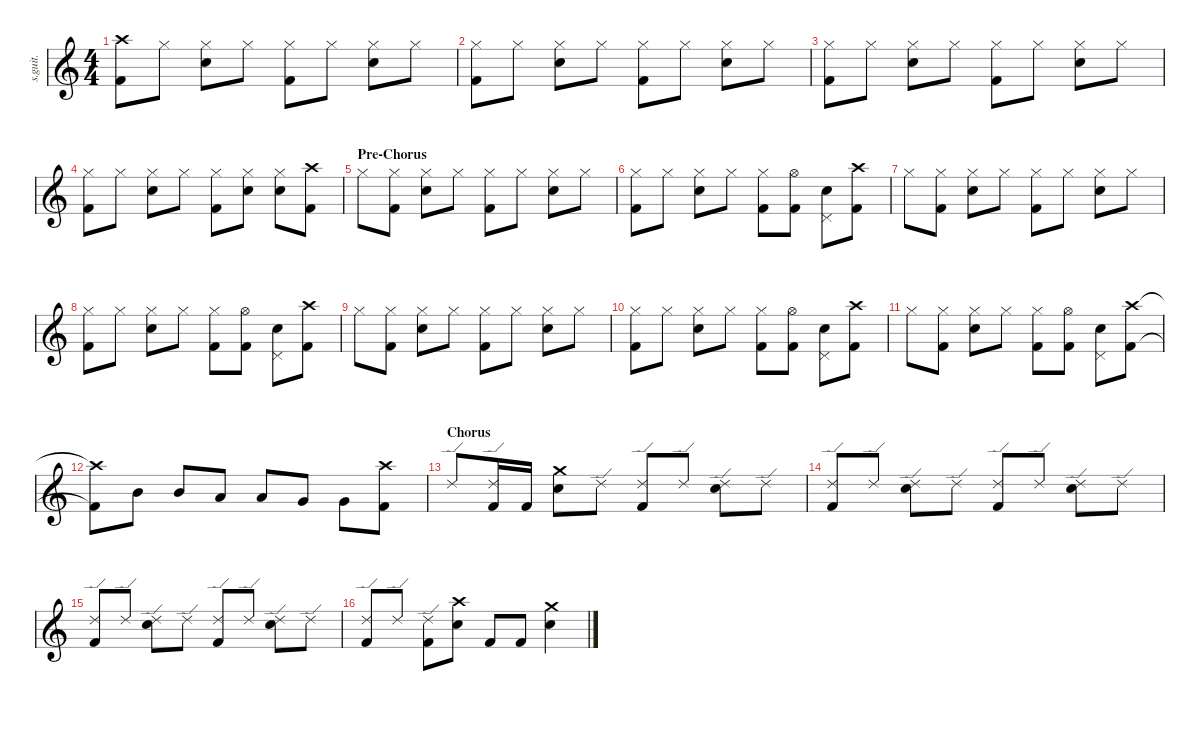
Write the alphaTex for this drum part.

\defaultSystemsLayout 4
\hideDynamics
\bracketExtendMode nobrackets
\track ("Nick Menza" "s.guit.") {instrument percussion}
\staff {score}
\articulation defaults
\ts (4 4)
\tempo (140 hide)
\clef g2
\ks c
("Crash high (hit)" "Kick (hit) 2").8{lyrics (0 "") lyrics (1 "") lyrics (2 "") lyrics (3 "") lyrics (4 "") dy f} "Hi-Hat (closed)".8{lyrics (0 "") lyrics (1 "") lyrics (2 "") lyrics (3 "") lyrics (4 "")} ("Hi-Hat (closed)" "Snare (hit) 2").8{lyrics (0 "") lyrics (1 "") lyrics (2 "") lyrics (3 "") lyrics (4 "")} "Hi-Hat (closed)".8{lyrics (0 "") lyrics (1 "") lyrics (2 "") lyrics (3 "") lyrics (4 "")} ("Hi-Hat (closed)" "Kick (hit) 2").8{lyrics (0 "") lyrics (1 "") lyrics (2 "") lyrics (3 "") lyrics (4 "")} "Hi-Hat (closed)".8{lyrics (0 "") lyrics (1 "") lyrics (2 "") lyrics (3 "") lyrics (4 "")} ("Hi-Hat (closed)" "Snare (hit) 2").8{lyrics (0 "") lyrics (1 "") lyrics (2 "") lyrics (3 "") lyrics (4 "")} "Hi-Hat (closed)".8{lyrics (0 "") lyrics (1 "") lyrics (2 "") lyrics (3 "") lyrics (4 "")} |
("Hi-Hat (closed)" "Kick (hit) 2").8{lyrics (0 "") lyrics (1 "") lyrics (2 "") lyrics (3 "") lyrics (4 "")} "Hi-Hat (closed)".8{lyrics (0 "") lyrics (1 "") lyrics (2 "") lyrics (3 "") lyrics (4 "")} ("Hi-Hat (closed)" "Snare (hit) 2").8{lyrics (0 "") lyrics (1 "") lyrics (2 "") lyrics (3 "") lyrics (4 "")} "Hi-Hat (closed)".8{lyrics (0 "") lyrics (1 "") lyrics (2 "") lyrics (3 "") lyrics (4 "")} ("Hi-Hat (closed)" "Kick (hit) 2").8{lyrics (0 "") lyrics (1 "") lyrics (2 "") lyrics (3 "") lyrics (4 "")} "Hi-Hat (closed)".8{lyrics (0 "") lyrics (1 "") lyrics (2 "") lyrics (3 "") lyrics (4 "")} ("Hi-Hat (closed)" "Snare (hit) 2").8{lyrics (0 "") lyrics (1 "") lyrics (2 "") lyrics (3 "") lyrics (4 "")} "Hi-Hat (closed)".8{lyrics (0 "") lyrics (1 "") lyrics (2 "") lyrics (3 "") lyrics (4 "")} |
("Hi-Hat (closed)" "Kick (hit) 2").8{lyrics (0 "") lyrics (1 "") lyrics (2 "") lyrics (3 "") lyrics (4 "")} "Hi-Hat (closed)".8{lyrics (0 "") lyrics (1 "") lyrics (2 "") lyrics (3 "") lyrics (4 "")} ("Hi-Hat (closed)" "Snare (hit) 2").8{lyrics (0 "") lyrics (1 "") lyrics (2 "") lyrics (3 "") lyrics (4 "")} "Hi-Hat (closed)".8{lyrics (0 "") lyrics (1 "") lyrics (2 "") lyrics (3 "") lyrics (4 "")} ("Hi-Hat (closed)" "Kick (hit) 2").8{lyrics (0 "") lyrics (1 "") lyrics (2 "") lyrics (3 "") lyrics (4 "")} "Hi-Hat (closed)".8{lyrics (0 "") lyrics (1 "") lyrics (2 "") lyrics (3 "") lyrics (4 "")} ("Hi-Hat (closed)" "Snare (hit) 2").8{lyrics (0 "") lyrics (1 "") lyrics (2 "") lyrics (3 "") lyrics (4 "")} "Hi-Hat (closed)".8{lyrics (0 "") lyrics (1 "") lyrics (2 "") lyrics (3 "") lyrics (4 "")} |
("Hi-Hat (closed)" "Kick (hit) 2").8{lyrics (0 "") lyrics (1 "") lyrics (2 "") lyrics (3 "") lyrics (4 "")} "Hi-Hat (closed)".8{lyrics (0 "") lyrics (1 "") lyrics (2 "") lyrics (3 "") lyrics (4 "")} ("Hi-Hat (closed)" "Snare (hit) 2").8{lyrics (0 "") lyrics (1 "") lyrics (2 "") lyrics (3 "") lyrics (4 "")} "Hi-Hat (closed)".8{lyrics (0 "") lyrics (1 "") lyrics (2 "") lyrics (3 "") lyrics (4 "")} ("Hi-Hat (closed)" "Kick (hit) 2").8{lyrics (0 "") lyrics (1 "") lyrics (2 "") lyrics (3 "") lyrics (4 "")} ("Hi-Hat (closed)" "Snare (hit) 2").8{lyrics (0 "") lyrics (1 "") lyrics (2 "") lyrics (3 "") lyrics (4 "")} ("Hi-Hat (closed)" "Snare (hit) 2").8{lyrics (0 "") lyrics (1 "") lyrics (2 "") lyrics (3 "") lyrics (4 "")} ("Crash high (hit)" "Kick (hit) 2").8{lyrics (0 "") lyrics (1 "") lyrics (2 "") lyrics (3 "") lyrics (4 "")} |
\section ("" "Pre-Chorus")
"Hi-Hat (closed)".8{lyrics (0 "") lyrics (1 "") lyrics (2 "") lyrics (3 "") lyrics (4 "")} ("Hi-Hat (closed)" "Kick (hit) 2").8{lyrics (0 "") lyrics (1 "") lyrics (2 "") lyrics (3 "") lyrics (4 "")} ("Hi-Hat (closed)" "Snare (hit) 2").8{lyrics (0 "") lyrics (1 "") lyrics (2 "") lyrics (3 "") lyrics (4 "")} "Hi-Hat (closed)".8{lyrics (0 "") lyrics (1 "") lyrics (2 "") lyrics (3 "") lyrics (4 "")} ("Hi-Hat (closed)" "Kick (hit) 2").8{lyrics (0 "") lyrics (1 "") lyrics (2 "") lyrics (3 "") lyrics (4 "")} "Hi-Hat (closed)".8{lyrics (0 "") lyrics (1 "") lyrics (2 "") lyrics (3 "") lyrics (4 "")} ("Hi-Hat (closed)" "Snare (hit) 2").8{lyrics (0 "") lyrics (1 "") lyrics (2 "") lyrics (3 "") lyrics (4 "")} "Hi-Hat (closed)".8{lyrics (0 "") lyrics (1 "") lyrics (2 "") lyrics (3 "") lyrics (4 "")} |
("Hi-Hat (closed)" "Kick (hit) 2").8{lyrics (0 "") lyrics (1 "") lyrics (2 "") lyrics (3 "") lyrics (4 "")} "Hi-Hat (closed)".8{lyrics (0 "") lyrics (1 "") lyrics (2 "") lyrics (3 "") lyrics (4 "")} ("Hi-Hat (closed)" "Snare (hit) 2").8{lyrics (0 "") lyrics (1 "") lyrics (2 "") lyrics (3 "") lyrics (4 "")} "Hi-Hat (closed)".8{lyrics (0 "") lyrics (1 "") lyrics (2 "") lyrics (3 "") lyrics (4 "")} ("Hi-Hat (closed)" "Kick (hit) 2").8{lyrics (0 "") lyrics (1 "") lyrics (2 "") lyrics (3 "") lyrics (4 "")} ("Hi-Hat (open)" "Kick (hit) 2").8{lyrics (0 "") lyrics (1 "") lyrics (2 "") lyrics (3 "") lyrics (4 "")} ("Pedal Hi-Hat (hit)" "Snare (hit) 2").8{lyrics (0 "") lyrics (1 "") lyrics (2 "") lyrics (3 "") lyrics (4 "")} ("Crash high (hit)" "Kick (hit) 2").8{lyrics (0 "") lyrics (1 "") lyrics (2 "") lyrics (3 "") lyrics (4 "")} |
"Hi-Hat (closed)".8{lyrics (0 "") lyrics (1 "") lyrics (2 "") lyrics (3 "") lyrics (4 "")} ("Hi-Hat (closed)" "Kick (hit) 2").8{lyrics (0 "") lyrics (1 "") lyrics (2 "") lyrics (3 "") lyrics (4 "")} ("Hi-Hat (closed)" "Snare (hit) 2").8{lyrics (0 "") lyrics (1 "") lyrics (2 "") lyrics (3 "") lyrics (4 "")} "Hi-Hat (closed)".8{lyrics (0 "") lyrics (1 "") lyrics (2 "") lyrics (3 "") lyrics (4 "")} ("Hi-Hat (closed)" "Kick (hit) 2").8{lyrics (0 "") lyrics (1 "") lyrics (2 "") lyrics (3 "") lyrics (4 "")} "Hi-Hat (closed)".8{lyrics (0 "") lyrics (1 "") lyrics (2 "") lyrics (3 "") lyrics (4 "")} ("Hi-Hat (closed)" "Snare (hit) 2").8{lyrics (0 "") lyrics (1 "") lyrics (2 "") lyrics (3 "") lyrics (4 "")} "Hi-Hat (closed)".8{lyrics (0 "") lyrics (1 "") lyrics (2 "") lyrics (3 "") lyrics (4 "")} |
("Hi-Hat (closed)" "Kick (hit) 2").8{lyrics (0 "") lyrics (1 "") lyrics (2 "") lyrics (3 "") lyrics (4 "")} "Hi-Hat (closed)".8{lyrics (0 "") lyrics (1 "") lyrics (2 "") lyrics (3 "") lyrics (4 "")} ("Hi-Hat (closed)" "Snare (hit) 2").8{lyrics (0 "") lyrics (1 "") lyrics (2 "") lyrics (3 "") lyrics (4 "")} "Hi-Hat (closed)".8{lyrics (0 "") lyrics (1 "") lyrics (2 "") lyrics (3 "") lyrics (4 "")} ("Hi-Hat (closed)" "Kick (hit) 2").8{lyrics (0 "") lyrics (1 "") lyrics (2 "") lyrics (3 "") lyrics (4 "")} ("Hi-Hat (open)" "Kick (hit) 2").8{lyrics (0 "") lyrics (1 "") lyrics (2 "") lyrics (3 "") lyrics (4 "")} ("Pedal Hi-Hat (hit)" "Snare (hit) 2").8{lyrics (0 "") lyrics (1 "") lyrics (2 "") lyrics (3 "") lyrics (4 "")} ("Crash high (hit)" "Kick (hit) 2").8{lyrics (0 "") lyrics (1 "") lyrics (2 "") lyrics (3 "") lyrics (4 "")} |
"Hi-Hat (closed)".8{lyrics (0 "") lyrics (1 "") lyrics (2 "") lyrics (3 "") lyrics (4 "")} ("Hi-Hat (closed)" "Kick (hit) 2").8{lyrics (0 "") lyrics (1 "") lyrics (2 "") lyrics (3 "") lyrics (4 "")} ("Hi-Hat (closed)" "Snare (hit) 2").8{lyrics (0 "") lyrics (1 "") lyrics (2 "") lyrics (3 "") lyrics (4 "")} "Hi-Hat (closed)".8{lyrics (0 "") lyrics (1 "") lyrics (2 "") lyrics (3 "") lyrics (4 "")} ("Hi-Hat (closed)" "Kick (hit) 2").8{lyrics (0 "") lyrics (1 "") lyrics (2 "") lyrics (3 "") lyrics (4 "")} "Hi-Hat (closed)".8{lyrics (0 "") lyrics (1 "") lyrics (2 "") lyrics (3 "") lyrics (4 "")} ("Hi-Hat (closed)" "Snare (hit) 2").8{lyrics (0 "") lyrics (1 "") lyrics (2 "") lyrics (3 "") lyrics (4 "")} "Hi-Hat (closed)".8{lyrics (0 "") lyrics (1 "") lyrics (2 "") lyrics (3 "") lyrics (4 "")} |
("Hi-Hat (closed)" "Kick (hit) 2").8{lyrics (0 "") lyrics (1 "") lyrics (2 "") lyrics (3 "") lyrics (4 "")} "Hi-Hat (closed)".8{lyrics (0 "") lyrics (1 "") lyrics (2 "") lyrics (3 "") lyrics (4 "")} ("Hi-Hat (closed)" "Snare (hit) 2").8{lyrics (0 "") lyrics (1 "") lyrics (2 "") lyrics (3 "") lyrics (4 "")} "Hi-Hat (closed)".8{lyrics (0 "") lyrics (1 "") lyrics (2 "") lyrics (3 "") lyrics (4 "")} ("Hi-Hat (closed)" "Kick (hit) 2").8{lyrics (0 "") lyrics (1 "") lyrics (2 "") lyrics (3 "") lyrics (4 "")} ("Hi-Hat (open)" "Kick (hit) 2").8{lyrics (0 "") lyrics (1 "") lyrics (2 "") lyrics (3 "") lyrics (4 "")} ("Pedal Hi-Hat (hit)" "Snare (hit) 2").8{lyrics (0 "") lyrics (1 "") lyrics (2 "") lyrics (3 "") lyrics (4 "")} ("Crash high (hit)" "Kick (hit) 2").8{lyrics (0 "") lyrics (1 "") lyrics (2 "") lyrics (3 "") lyrics (4 "")} |
"Hi-Hat (closed)".8{lyrics (0 "") lyrics (1 "") lyrics (2 "") lyrics (3 "") lyrics (4 "")} ("Hi-Hat (closed)" "Kick (hit) 2").8{lyrics (0 "") lyrics (1 "") lyrics (2 "") lyrics (3 "") lyrics (4 "")} ("Hi-Hat (closed)" "Snare (hit) 2").8{lyrics (0 "") lyrics (1 "") lyrics (2 "") lyrics (3 "") lyrics (4 "")} "Hi-Hat (closed)".8{lyrics (0 "") lyrics (1 "") lyrics (2 "") lyrics (3 "") lyrics (4 "")} ("Hi-Hat (closed)" "Kick (hit) 2").8{lyrics (0 "") lyrics (1 "") lyrics (2 "") lyrics (3 "") lyrics (4 "")} ("Hi-Hat (open)" "Kick (hit) 2").8{lyrics (0 "") lyrics (1 "") lyrics (2 "") lyrics (3 "") lyrics (4 "")} ("Pedal Hi-Hat (hit)" "Snare (hit) 2").8{lyrics (0 "") lyrics (1 "") lyrics (2 "") lyrics (3 "") lyrics (4 "")} ("Crash high (hit)" "Kick (hit) 2").8{lyrics (0 "") lyrics (1 "") lyrics (2 "") lyrics (3 "") lyrics (4 "")} |
("Crash high (hit)"{t} "Kick (hit) 2"{t}).8{lyrics (0 "") lyrics (1 "") lyrics (2 "") lyrics (3 "") lyrics (4 "")} "Mid Tom (hit)".8{lyrics (0 "") lyrics (1 "") lyrics (2 "") lyrics (3 "") lyrics (4 "")} "Mid Tom (hit)".8{lyrics (0 "") lyrics (1 "") lyrics (2 "") lyrics (3 "") lyrics (4 "")} "Low Tom (hit)".8{lyrics (0 "") lyrics (1 "") lyrics (2 "") lyrics (3 "") lyrics (4 "")} "Low Tom (hit)".8{lyrics (0 "") lyrics (1 "") lyrics (2 "") lyrics (3 "") lyrics (4 "")} "Very Low Tom (hit)".8{lyrics (0 "") lyrics (1 "") lyrics (2 "") lyrics (3 "") lyrics (4 "")} "Very Low Tom (hit)".8{lyrics (0 "") lyrics (1 "") lyrics (2 "") lyrics (3 "") lyrics (4 "")} ("Crash high (hit)" "Kick (hit) 2").8{lyrics (0 "") lyrics (1 "") lyrics (2 "") lyrics (3 "") lyrics (4 "")} |
\section ("" "Chorus")
"Ride (edge) 2".8{lyrics (0 "") lyrics (1 "") lyrics (2 "") lyrics (3 "") lyrics (4 "")} ("Ride (edge) 2" "Kick (hit) 2").16{lyrics (0 "") lyrics (1 "") lyrics (2 "") lyrics (3 "") lyrics (4 "")} "Kick (hit) 2".16{lyrics (0 "") lyrics (1 "") lyrics (2 "") lyrics (3 "") lyrics (4 "") dy fff} ("Crash medium (hit)" "Snare (hit) 2").8{lyrics (0 "") lyrics (1 "") lyrics (2 "") lyrics (3 "") lyrics (4 "") dy f} "Ride (edge) 2".8{lyrics (0 "") lyrics (1 "") lyrics (2 "") lyrics (3 "") lyrics (4 "")} ("Ride (edge) 2" "Kick (hit) 2").8{lyrics (0 "") lyrics (1 "") lyrics (2 "") lyrics (3 "") lyrics (4 "")} "Ride (edge) 2".8{lyrics (0 "") lyrics (1 "") lyrics (2 "") lyrics (3 "") lyrics (4 "")} ("Ride (edge) 2" "Snare (hit) 2").8{lyrics (0 "") lyrics (1 "") lyrics (2 "") lyrics (3 "") lyrics (4 "")} "Ride (edge) 2".8{lyrics (0 "") lyrics (1 "") lyrics (2 "") lyrics (3 "") lyrics (4 "")} |
("Ride (edge) 2" "Kick (hit) 2").8{lyrics (0 "") lyrics (1 "") lyrics (2 "") lyrics (3 "") lyrics (4 "")} "Ride (edge) 2".8{lyrics (0 "") lyrics (1 "") lyrics (2 "") lyrics (3 "") lyrics (4 "")} ("Ride (edge) 2" "Snare (hit) 2").8{lyrics (0 "") lyrics (1 "") lyrics (2 "") lyrics (3 "") lyrics (4 "")} "Ride (edge) 2".8{lyrics (0 "") lyrics (1 "") lyrics (2 "") lyrics (3 "") lyrics (4 "")} ("Ride (edge) 2" "Kick (hit) 2").8{lyrics (0 "") lyrics (1 "") lyrics (2 "") lyrics (3 "") lyrics (4 "")} "Ride (edge) 2".8{lyrics (0 "") lyrics (1 "") lyrics (2 "") lyrics (3 "") lyrics (4 "")} ("Ride (edge) 2" "Snare (hit) 2").8{lyrics (0 "") lyrics (1 "") lyrics (2 "") lyrics (3 "") lyrics (4 "")} "Ride (edge) 2".8{lyrics (0 "") lyrics (1 "") lyrics (2 "") lyrics (3 "") lyrics (4 "")} |
("Ride (edge) 2" "Kick (hit) 2").8{lyrics (0 "") lyrics (1 "") lyrics (2 "") lyrics (3 "") lyrics (4 "")} "Ride (edge) 2".8{lyrics (0 "") lyrics (1 "") lyrics (2 "") lyrics (3 "") lyrics (4 "")} ("Ride (edge) 2" "Snare (hit) 2").8{lyrics (0 "") lyrics (1 "") lyrics (2 "") lyrics (3 "") lyrics (4 "")} "Ride (edge) 2".8{lyrics (0 "") lyrics (1 "") lyrics (2 "") lyrics (3 "") lyrics (4 "")} ("Ride (edge) 2" "Kick (hit) 2").8{lyrics (0 "") lyrics (1 "") lyrics (2 "") lyrics (3 "") lyrics (4 "")} "Ride (edge) 2".8{lyrics (0 "") lyrics (1 "") lyrics (2 "") lyrics (3 "") lyrics (4 "")} ("Ride (edge) 2" "Snare (hit) 2").8{lyrics (0 "") lyrics (1 "") lyrics (2 "") lyrics (3 "") lyrics (4 "")} "Ride (edge) 2".8{lyrics (0 "") lyrics (1 "") lyrics (2 "") lyrics (3 "") lyrics (4 "")} |
("Ride (edge) 2" "Kick (hit) 2").8{lyrics (0 "") lyrics (1 "") lyrics (2 "") lyrics (3 "") lyrics (4 "")} "Ride (edge) 2".8{lyrics (0 "") lyrics (1 "") lyrics (2 "") lyrics (3 "") lyrics (4 "")} ("Ride (edge) 2" "Kick (hit) 2").8{lyrics (0 "") lyrics (1 "") lyrics (2 "") lyrics (3 "") lyrics (4 "")} ("Crash high (hit)" "Snare (hit) 2").8{lyrics (0 "") lyrics (1 "") lyrics (2 "") lyrics (3 "") lyrics (4 "")} "Kick (hit) 2".8{lyrics (0 "") lyrics (1 "") lyrics (2 "") lyrics (3 "") lyrics (4 "") dy fff} "Kick (hit) 2".8{lyrics (0 "") lyrics (1 "") lyrics (2 "") lyrics (3 "") lyrics (4 "")} ("Crash medium (hit)" "Snare (hit) 2").4{lyrics (0 "") lyrics (1 "") lyrics (2 "") lyrics (3 "") lyrics (4 "") dy f}
